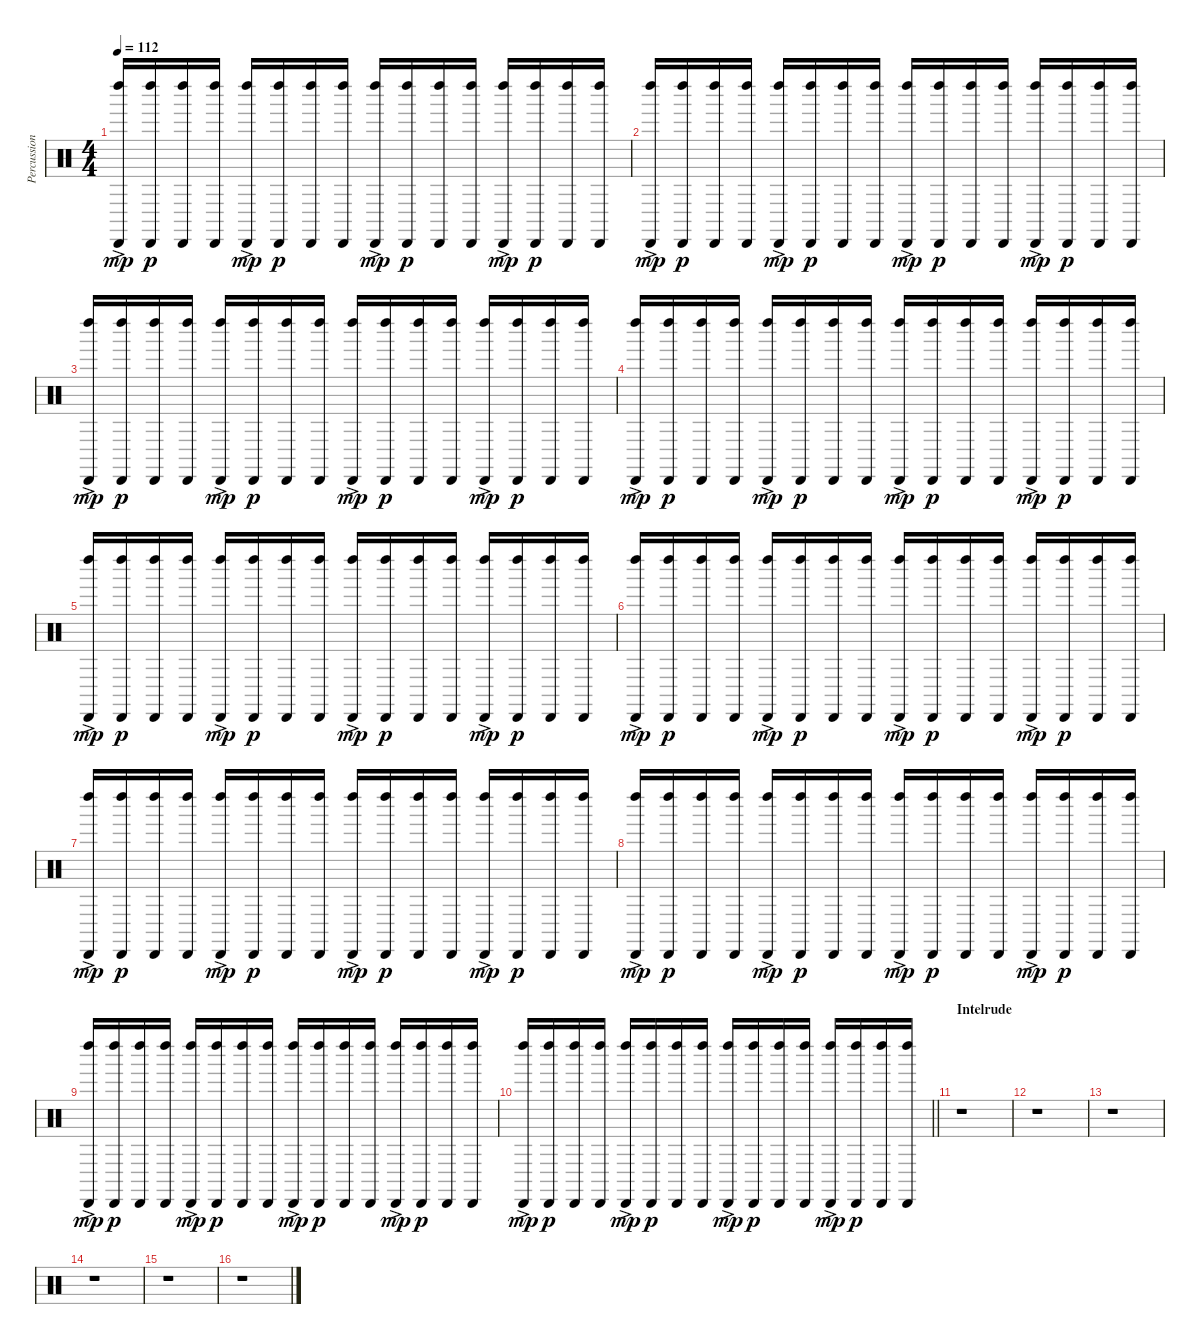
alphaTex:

\track ("Percussion" "Percussion") {instrument percussion}
\staff {score}
\articulation defaults
\ts (4 4)
\tempo 112
\clef neutral
\ks c
("Left Maraca (hit)"{ac} "Cabasa (hit)"{ac}).16{dy mp} ("Left Maraca (hit)" "Cabasa (hit)").16{dy p} ("Left Maraca (hit)" "Cabasa (hit)").16 ("Left Maraca (hit)" "Cabasa (hit)").16 ("Left Maraca (hit)"{ac} "Cabasa (hit)"{ac}).16{dy mp} ("Left Maraca (hit)" "Cabasa (hit)").16{dy p} ("Left Maraca (hit)" "Cabasa (hit)").16 ("Left Maraca (hit)" "Cabasa (hit)").16 ("Left Maraca (hit)"{ac} "Cabasa (hit)"{ac}).16{dy mp} ("Left Maraca (hit)" "Cabasa (hit)").16{dy p} ("Left Maraca (hit)" "Cabasa (hit)").16 ("Left Maraca (hit)" "Cabasa (hit)").16 ("Left Maraca (hit)"{ac} "Cabasa (hit)"{ac}).16{dy mp} ("Left Maraca (hit)" "Cabasa (hit)").16{dy p} ("Left Maraca (hit)" "Cabasa (hit)").16 ("Left Maraca (hit)" "Cabasa (hit)").16 |
("Left Maraca (hit)"{ac} "Cabasa (hit)"{ac}).16{dy mp} ("Left Maraca (hit)" "Cabasa (hit)").16{dy p} ("Left Maraca (hit)" "Cabasa (hit)").16 ("Left Maraca (hit)" "Cabasa (hit)").16 ("Left Maraca (hit)"{ac} "Cabasa (hit)"{ac}).16{dy mp} ("Left Maraca (hit)" "Cabasa (hit)").16{dy p} ("Left Maraca (hit)" "Cabasa (hit)").16 ("Left Maraca (hit)" "Cabasa (hit)").16 ("Left Maraca (hit)"{ac} "Cabasa (hit)"{ac}).16{dy mp} ("Left Maraca (hit)" "Cabasa (hit)").16{dy p} ("Left Maraca (hit)" "Cabasa (hit)").16 ("Left Maraca (hit)" "Cabasa (hit)").16 ("Left Maraca (hit)"{ac} "Cabasa (hit)"{ac}).16{dy mp} ("Left Maraca (hit)" "Cabasa (hit)").16{dy p} ("Left Maraca (hit)" "Cabasa (hit)").16 ("Left Maraca (hit)" "Cabasa (hit)").16 |
("Left Maraca (hit)"{ac} "Cabasa (hit)"{ac}).16{dy mp} ("Left Maraca (hit)" "Cabasa (hit)").16{dy p} ("Left Maraca (hit)" "Cabasa (hit)").16 ("Left Maraca (hit)" "Cabasa (hit)").16 ("Left Maraca (hit)"{ac} "Cabasa (hit)"{ac}).16{dy mp} ("Left Maraca (hit)" "Cabasa (hit)").16{dy p} ("Left Maraca (hit)" "Cabasa (hit)").16 ("Left Maraca (hit)" "Cabasa (hit)").16 ("Left Maraca (hit)"{ac} "Cabasa (hit)"{ac}).16{dy mp} ("Left Maraca (hit)" "Cabasa (hit)").16{dy p} ("Left Maraca (hit)" "Cabasa (hit)").16 ("Left Maraca (hit)" "Cabasa (hit)").16 ("Left Maraca (hit)"{ac} "Cabasa (hit)"{ac}).16{dy mp} ("Left Maraca (hit)" "Cabasa (hit)").16{dy p} ("Left Maraca (hit)" "Cabasa (hit)").16 ("Left Maraca (hit)" "Cabasa (hit)").16 |
("Left Maraca (hit)"{ac} "Cabasa (hit)"{ac}).16{dy mp} ("Left Maraca (hit)" "Cabasa (hit)").16{dy p} ("Left Maraca (hit)" "Cabasa (hit)").16 ("Left Maraca (hit)" "Cabasa (hit)").16 ("Left Maraca (hit)"{ac} "Cabasa (hit)"{ac}).16{dy mp} ("Left Maraca (hit)" "Cabasa (hit)").16{dy p} ("Left Maraca (hit)" "Cabasa (hit)").16 ("Left Maraca (hit)" "Cabasa (hit)").16 ("Left Maraca (hit)"{ac} "Cabasa (hit)"{ac}).16{dy mp} ("Left Maraca (hit)" "Cabasa (hit)").16{dy p} ("Left Maraca (hit)" "Cabasa (hit)").16 ("Left Maraca (hit)" "Cabasa (hit)").16 ("Left Maraca (hit)"{ac} "Cabasa (hit)"{ac}).16{dy mp} ("Left Maraca (hit)" "Cabasa (hit)").16{dy p} ("Left Maraca (hit)" "Cabasa (hit)").16 ("Left Maraca (hit)" "Cabasa (hit)").16 |
("Left Maraca (hit)"{ac} "Cabasa (hit)"{ac}).16{dy mp} ("Left Maraca (hit)" "Cabasa (hit)").16{dy p} ("Left Maraca (hit)" "Cabasa (hit)").16 ("Left Maraca (hit)" "Cabasa (hit)").16 ("Left Maraca (hit)"{ac} "Cabasa (hit)"{ac}).16{dy mp} ("Left Maraca (hit)" "Cabasa (hit)").16{dy p} ("Left Maraca (hit)" "Cabasa (hit)").16 ("Left Maraca (hit)" "Cabasa (hit)").16 ("Left Maraca (hit)"{ac} "Cabasa (hit)"{ac}).16{dy mp} ("Left Maraca (hit)" "Cabasa (hit)").16{dy p} ("Left Maraca (hit)" "Cabasa (hit)").16 ("Left Maraca (hit)" "Cabasa (hit)").16 ("Left Maraca (hit)"{ac} "Cabasa (hit)"{ac}).16{dy mp} ("Left Maraca (hit)" "Cabasa (hit)").16{dy p} ("Left Maraca (hit)" "Cabasa (hit)").16 ("Left Maraca (hit)" "Cabasa (hit)").16 |
("Left Maraca (hit)"{ac} "Cabasa (hit)"{ac}).16{dy mp} ("Left Maraca (hit)" "Cabasa (hit)").16{dy p} ("Left Maraca (hit)" "Cabasa (hit)").16 ("Left Maraca (hit)" "Cabasa (hit)").16 ("Left Maraca (hit)"{ac} "Cabasa (hit)"{ac}).16{dy mp} ("Left Maraca (hit)" "Cabasa (hit)").16{dy p} ("Left Maraca (hit)" "Cabasa (hit)").16 ("Left Maraca (hit)" "Cabasa (hit)").16 ("Left Maraca (hit)"{ac} "Cabasa (hit)"{ac}).16{dy mp} ("Left Maraca (hit)" "Cabasa (hit)").16{dy p} ("Left Maraca (hit)" "Cabasa (hit)").16 ("Left Maraca (hit)" "Cabasa (hit)").16 ("Left Maraca (hit)"{ac} "Cabasa (hit)"{ac}).16{dy mp} ("Left Maraca (hit)" "Cabasa (hit)").16{dy p} ("Left Maraca (hit)" "Cabasa (hit)").16 ("Left Maraca (hit)" "Cabasa (hit)").16 |
("Left Maraca (hit)"{ac} "Cabasa (hit)"{ac}).16{dy mp} ("Left Maraca (hit)" "Cabasa (hit)").16{dy p} ("Left Maraca (hit)" "Cabasa (hit)").16 ("Left Maraca (hit)" "Cabasa (hit)").16 ("Left Maraca (hit)"{ac} "Cabasa (hit)"{ac}).16{dy mp} ("Left Maraca (hit)" "Cabasa (hit)").16{dy p} ("Left Maraca (hit)" "Cabasa (hit)").16 ("Left Maraca (hit)" "Cabasa (hit)").16 ("Left Maraca (hit)"{ac} "Cabasa (hit)"{ac}).16{dy mp} ("Left Maraca (hit)" "Cabasa (hit)").16{dy p} ("Left Maraca (hit)" "Cabasa (hit)").16 ("Left Maraca (hit)" "Cabasa (hit)").16 ("Left Maraca (hit)"{ac} "Cabasa (hit)"{ac}).16{dy mp} ("Left Maraca (hit)" "Cabasa (hit)").16{dy p} ("Left Maraca (hit)" "Cabasa (hit)").16 ("Left Maraca (hit)" "Cabasa (hit)").16 |
("Left Maraca (hit)"{ac} "Cabasa (hit)"{ac}).16{dy mp} ("Left Maraca (hit)" "Cabasa (hit)").16{dy p} ("Left Maraca (hit)" "Cabasa (hit)").16 ("Left Maraca (hit)" "Cabasa (hit)").16 ("Left Maraca (hit)"{ac} "Cabasa (hit)"{ac}).16{dy mp} ("Left Maraca (hit)" "Cabasa (hit)").16{dy p} ("Left Maraca (hit)" "Cabasa (hit)").16 ("Left Maraca (hit)" "Cabasa (hit)").16 ("Left Maraca (hit)"{ac} "Cabasa (hit)"{ac}).16{dy mp} ("Left Maraca (hit)" "Cabasa (hit)").16{dy p} ("Left Maraca (hit)" "Cabasa (hit)").16 ("Left Maraca (hit)" "Cabasa (hit)").16 ("Left Maraca (hit)"{ac} "Cabasa (hit)"{ac}).16{dy mp} ("Left Maraca (hit)" "Cabasa (hit)").16{dy p} ("Left Maraca (hit)" "Cabasa (hit)").16 ("Left Maraca (hit)" "Cabasa (hit)").16 |
("Left Maraca (hit)"{ac} "Cabasa (hit)"{ac}).16{dy mp} ("Left Maraca (hit)" "Cabasa (hit)").16{dy p} ("Left Maraca (hit)" "Cabasa (hit)").16 ("Left Maraca (hit)" "Cabasa (hit)").16 ("Left Maraca (hit)"{ac} "Cabasa (hit)"{ac}).16{dy mp} ("Left Maraca (hit)" "Cabasa (hit)").16{dy p} ("Left Maraca (hit)" "Cabasa (hit)").16 ("Left Maraca (hit)" "Cabasa (hit)").16 ("Left Maraca (hit)"{ac} "Cabasa (hit)"{ac}).16{dy mp} ("Left Maraca (hit)" "Cabasa (hit)").16{dy p} ("Left Maraca (hit)" "Cabasa (hit)").16 ("Left Maraca (hit)" "Cabasa (hit)").16 ("Left Maraca (hit)"{ac} "Cabasa (hit)"{ac}).16{dy mp} ("Left Maraca (hit)" "Cabasa (hit)").16{dy p} ("Left Maraca (hit)" "Cabasa (hit)").16 ("Left Maraca (hit)" "Cabasa (hit)").16 |
\barLineRight lightlight
("Left Maraca (hit)"{ac} "Cabasa (hit)"{ac}).16{dy mp} ("Left Maraca (hit)" "Cabasa (hit)").16{dy p} ("Left Maraca (hit)" "Cabasa (hit)").16 ("Left Maraca (hit)" "Cabasa (hit)").16 ("Left Maraca (hit)"{ac} "Cabasa (hit)"{ac}).16{dy mp} ("Left Maraca (hit)" "Cabasa (hit)").16{dy p} ("Left Maraca (hit)" "Cabasa (hit)").16 ("Left Maraca (hit)" "Cabasa (hit)").16 ("Left Maraca (hit)"{ac} "Cabasa (hit)"{ac}).16{dy mp} ("Left Maraca (hit)" "Cabasa (hit)").16{dy p} ("Left Maraca (hit)" "Cabasa (hit)").16 ("Left Maraca (hit)" "Cabasa (hit)").16 ("Left Maraca (hit)"{ac} "Cabasa (hit)"{ac}).16{dy mp} ("Left Maraca (hit)" "Cabasa (hit)").16{dy p} ("Left Maraca (hit)" "Cabasa (hit)").16 ("Left Maraca (hit)" "Cabasa (hit)").16 |
\section ("" "Intelrude")
r.1 |
r.1 |
r.1 |
r.1 |
r.1 |
r.1
